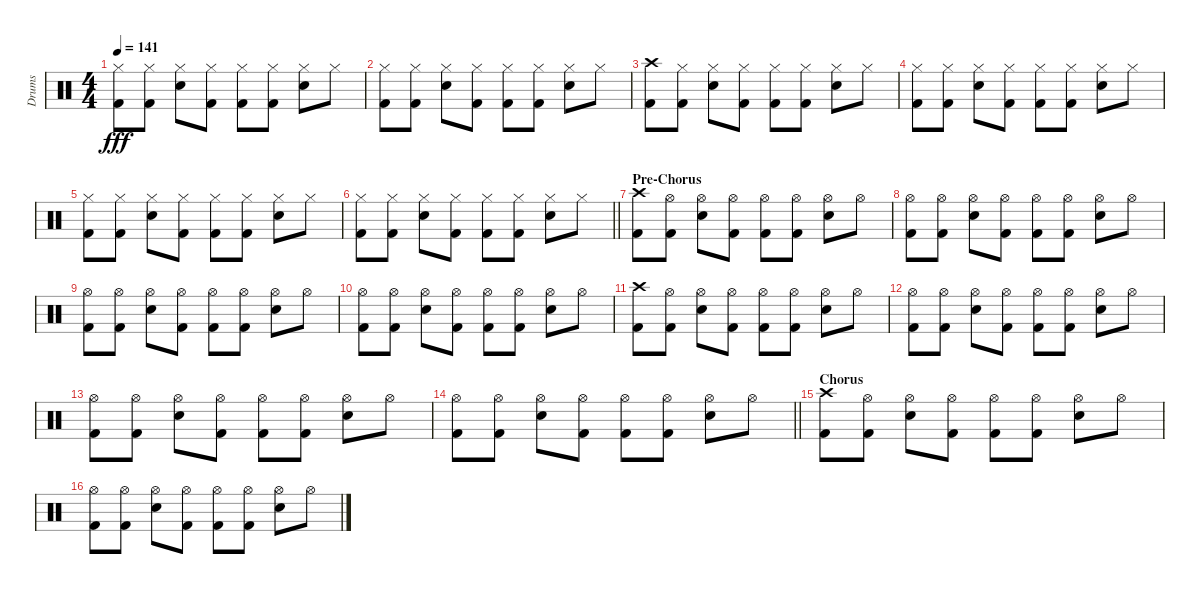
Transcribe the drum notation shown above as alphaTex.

\track ("Drums" "Drums") {instrument percussion}
\staff {score}
\articulation defaults
\ts (4 4)
\tempo 141
\clef neutral
\ks c
("Hi-Hat (closed)" "Kick (hit) 2").8{dy fff} ("Hi-Hat (closed)" "Kick (hit) 2").8 ("Hi-Hat (closed)" "Electric Snare (hit)").8 ("Hi-Hat (closed)" "Kick (hit) 2").8 ("Hi-Hat (closed)" "Kick (hit) 2").8 ("Hi-Hat (closed)" "Kick (hit) 2").8 ("Hi-Hat (closed)" "Electric Snare (hit)").8 "Hi-Hat (closed)".8 |
("Hi-Hat (closed)" "Kick (hit) 2").8 ("Hi-Hat (closed)" "Kick (hit) 2").8 ("Hi-Hat (closed)" "Electric Snare (hit)").8 ("Hi-Hat (closed)" "Kick (hit) 2").8 ("Hi-Hat (closed)" "Kick (hit) 2").8 ("Hi-Hat (closed)" "Kick (hit) 2").8 ("Hi-Hat (closed)" "Electric Snare (hit)").8 "Hi-Hat (closed)".8 |
("Crash high (hit)" "Kick (hit) 2").8 ("Hi-Hat (closed)" "Kick (hit) 2").8 ("Hi-Hat (closed)" "Electric Snare (hit)").8 ("Hi-Hat (closed)" "Kick (hit) 2").8 ("Hi-Hat (closed)" "Kick (hit) 2").8 ("Hi-Hat (closed)" "Kick (hit) 2").8 ("Hi-Hat (closed)" "Electric Snare (hit)").8 "Hi-Hat (closed)".8 |
("Hi-Hat (closed)" "Kick (hit) 2").8 ("Hi-Hat (closed)" "Kick (hit) 2").8 ("Hi-Hat (closed)" "Electric Snare (hit)").8 ("Hi-Hat (closed)" "Kick (hit) 2").8 ("Hi-Hat (closed)" "Kick (hit) 2").8 ("Hi-Hat (closed)" "Kick (hit) 2").8 ("Hi-Hat (closed)" "Electric Snare (hit)").8 "Hi-Hat (closed)".8 |
("Hi-Hat (closed)" "Kick (hit) 2").8 ("Hi-Hat (closed)" "Kick (hit) 2").8 ("Hi-Hat (closed)" "Electric Snare (hit)").8 ("Hi-Hat (closed)" "Kick (hit) 2").8 ("Hi-Hat (closed)" "Kick (hit) 2").8 ("Hi-Hat (closed)" "Kick (hit) 2").8 ("Hi-Hat (closed)" "Electric Snare (hit)").8 "Hi-Hat (closed)".8 |
\barLineRight lightlight
("Hi-Hat (closed)" "Kick (hit) 2").8 ("Hi-Hat (closed)" "Kick (hit) 2").8 ("Hi-Hat (closed)" "Electric Snare (hit)").8 ("Hi-Hat (closed)" "Kick (hit) 2").8 ("Hi-Hat (closed)" "Kick (hit) 2").8 ("Hi-Hat (closed)" "Kick (hit) 2").8 ("Hi-Hat (closed)" "Electric Snare (hit)").8 "Hi-Hat (closed)".8 |
\section ("" "Pre-Chorus")
("Crash high (hit)" "Kick (hit) 2").8 ("Hi-Hat (open)" "Kick (hit) 2").8 ("Hi-Hat (open)" "Electric Snare (hit)").8 ("Hi-Hat (open)" "Kick (hit) 2").8 ("Hi-Hat (open)" "Kick (hit) 2").8 ("Hi-Hat (open)" "Kick (hit) 2").8 ("Hi-Hat (open)" "Electric Snare (hit)").8 "Hi-Hat (open)".8 |
("Hi-Hat (open)" "Kick (hit) 2").8 ("Hi-Hat (open)" "Kick (hit) 2").8 ("Hi-Hat (open)" "Electric Snare (hit)").8 ("Hi-Hat (open)" "Kick (hit) 2").8 ("Hi-Hat (open)" "Kick (hit) 2").8 ("Hi-Hat (open)" "Kick (hit) 2").8 ("Hi-Hat (open)" "Electric Snare (hit)").8 "Hi-Hat (open)".8 |
("Hi-Hat (open)" "Kick (hit) 2").8 ("Hi-Hat (open)" "Kick (hit) 2").8 ("Hi-Hat (open)" "Electric Snare (hit)").8 ("Hi-Hat (open)" "Kick (hit) 2").8 ("Hi-Hat (open)" "Kick (hit) 2").8 ("Hi-Hat (open)" "Kick (hit) 2").8 ("Hi-Hat (open)" "Electric Snare (hit)").8 "Hi-Hat (open)".8 |
("Hi-Hat (open)" "Kick (hit) 2").8 ("Hi-Hat (open)" "Kick (hit) 2").8 ("Hi-Hat (open)" "Electric Snare (hit)").8 ("Hi-Hat (open)" "Kick (hit) 2").8 ("Hi-Hat (open)" "Kick (hit) 2").8 ("Hi-Hat (open)" "Kick (hit) 2").8 ("Hi-Hat (open)" "Electric Snare (hit)").8 "Hi-Hat (open)".8 |
("Crash high (hit)" "Kick (hit) 2").8 ("Hi-Hat (open)" "Kick (hit) 2").8 ("Hi-Hat (open)" "Electric Snare (hit)").8 ("Hi-Hat (open)" "Kick (hit) 2").8 ("Hi-Hat (open)" "Kick (hit) 2").8 ("Hi-Hat (open)" "Kick (hit) 2").8 ("Hi-Hat (open)" "Electric Snare (hit)").8 "Hi-Hat (open)".8 |
("Hi-Hat (open)" "Kick (hit) 2").8 ("Hi-Hat (open)" "Kick (hit) 2").8 ("Hi-Hat (open)" "Electric Snare (hit)").8 ("Hi-Hat (open)" "Kick (hit) 2").8 ("Hi-Hat (open)" "Kick (hit) 2").8 ("Hi-Hat (open)" "Kick (hit) 2").8 ("Hi-Hat (open)" "Electric Snare (hit)").8 "Hi-Hat (open)".8 |
("Hi-Hat (open)" "Kick (hit) 2").8 ("Hi-Hat (open)" "Kick (hit) 2").8 ("Hi-Hat (open)" "Electric Snare (hit)").8 ("Hi-Hat (open)" "Kick (hit) 2").8 ("Hi-Hat (open)" "Kick (hit) 2").8 ("Hi-Hat (open)" "Kick (hit) 2").8 ("Hi-Hat (open)" "Electric Snare (hit)").8 "Hi-Hat (open)".8 |
\barLineRight lightlight
("Hi-Hat (open)" "Kick (hit) 2").8 ("Hi-Hat (open)" "Kick (hit) 2").8 ("Hi-Hat (open)" "Electric Snare (hit)").8 ("Hi-Hat (open)" "Kick (hit) 2").8 ("Hi-Hat (open)" "Kick (hit) 2").8 ("Hi-Hat (open)" "Kick (hit) 2").8 ("Hi-Hat (open)" "Electric Snare (hit)").8 "Hi-Hat (open)".8 |
\section ("" "Chorus")
("Crash high (hit)" "Kick (hit) 2").8 ("Hi-Hat (open)" "Kick (hit) 2").8 ("Hi-Hat (open)" "Electric Snare (hit)").8 ("Hi-Hat (open)" "Kick (hit) 2").8 ("Hi-Hat (open)" "Kick (hit) 2").8 ("Hi-Hat (open)" "Kick (hit) 2").8 ("Hi-Hat (open)" "Electric Snare (hit)").8 "Hi-Hat (open)".8 |
("Hi-Hat (open)" "Kick (hit) 2").8 ("Hi-Hat (open)" "Kick (hit) 2").8 ("Hi-Hat (open)" "Electric Snare (hit)").8 ("Hi-Hat (open)" "Kick (hit) 2").8 ("Hi-Hat (open)" "Kick (hit) 2").8 ("Hi-Hat (open)" "Kick (hit) 2").8 ("Hi-Hat (open)" "Electric Snare (hit)").8 "Hi-Hat (open)".8
